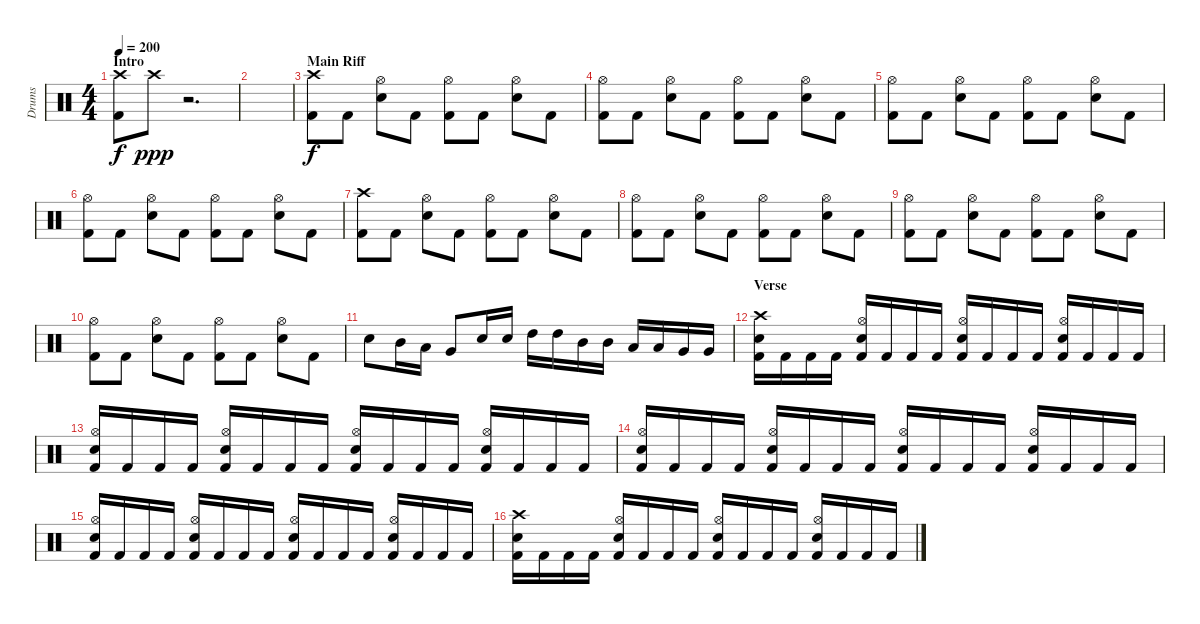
\track ("Drums" "Drums") {instrument percussion}
\staff {score}
\articulation defaults
\ts (4 4)
\section ("" "Intro")
\tempo 200
\clef neutral
\ks c
("Crash high (hit)" "Kick (hit) 2").8{dy f} "Crash high (hit)".8{dy ppp} r.2{d} |
|
\section ("" "Main Riff")
("Crash high (hit)" "Kick (hit) 2").8{dy f} "Kick (hit) 2".8 ("Hi-Hat (open)" "Electric Snare (hit)").8 "Kick (hit) 2".8 ("Hi-Hat (open)" "Kick (hit) 2").8 "Kick (hit) 2".8 ("Hi-Hat (open)" "Electric Snare (hit)").8 "Kick (hit) 2".8 |
("Hi-Hat (open)" "Kick (hit) 2").8 "Kick (hit) 2".8 ("Hi-Hat (open)" "Electric Snare (hit)").8 "Kick (hit) 2".8 ("Hi-Hat (open)" "Kick (hit) 2").8 "Kick (hit) 2".8 ("Hi-Hat (open)" "Electric Snare (hit)").8 "Kick (hit) 2".8 |
("Hi-Hat (open)" "Kick (hit) 2").8 "Kick (hit) 2".8 ("Hi-Hat (open)" "Electric Snare (hit)").8 "Kick (hit) 2".8 ("Hi-Hat (open)" "Kick (hit) 2").8 "Kick (hit) 2".8 ("Hi-Hat (open)" "Electric Snare (hit)").8 "Kick (hit) 2".8 |
("Hi-Hat (open)" "Kick (hit) 2").8 "Kick (hit) 2".8 ("Hi-Hat (open)" "Electric Snare (hit)").8 "Kick (hit) 2".8 ("Hi-Hat (open)" "Kick (hit) 2").8 "Kick (hit) 2".8 ("Hi-Hat (open)" "Electric Snare (hit)").8 "Kick (hit) 2".8 |
("Crash high (hit)" "Kick (hit) 2").8 "Kick (hit) 2".8 ("Hi-Hat (open)" "Electric Snare (hit)").8 "Kick (hit) 2".8 ("Hi-Hat (open)" "Kick (hit) 2").8 "Kick (hit) 2".8 ("Hi-Hat (open)" "Electric Snare (hit)").8 "Kick (hit) 2".8 |
("Hi-Hat (open)" "Kick (hit) 2").8 "Kick (hit) 2".8 ("Hi-Hat (open)" "Electric Snare (hit)").8 "Kick (hit) 2".8 ("Hi-Hat (open)" "Kick (hit) 2").8 "Kick (hit) 2".8 ("Hi-Hat (open)" "Electric Snare (hit)").8 "Kick (hit) 2".8 |
("Hi-Hat (open)" "Kick (hit) 2").8 "Kick (hit) 2".8 ("Hi-Hat (open)" "Electric Snare (hit)").8 "Kick (hit) 2".8 ("Hi-Hat (open)" "Kick (hit) 2").8 "Kick (hit) 2".8 ("Hi-Hat (open)" "Electric Snare (hit)").8 "Kick (hit) 2".8 |
("Hi-Hat (open)" "Kick (hit) 2").8 "Kick (hit) 2".8 ("Hi-Hat (open)" "Electric Snare (hit)").8 "Kick (hit) 2".8 ("Hi-Hat (open)" "Kick (hit) 2").8 "Kick (hit) 2".8 ("Hi-Hat (open)" "Electric Snare (hit)").8 "Kick (hit) 2".8 |
"Electric Snare (hit)".8 "Mid Tom (hit)".16 "Low Tom (hit)".16 "Very Low Tom (hit)".8 "Electric Snare (hit)".16 "Electric Snare (hit)".16 "High Tom (hit)".16 "High Tom (hit)".16 "Mid Tom (hit)".16 "Mid Tom (hit)".16 "Low Tom (hit)".16 "Low Tom (hit)".16 "Very Low Tom (hit)".16 "Very Low Tom (hit)".16 |
\section ("" "Verse")
("Crash high (hit)" "Electric Snare (hit)" "Kick (hit) 2").16 "Kick (hit) 2".16 "Kick (hit) 2".16 "Kick (hit) 2".16 ("Hi-Hat (open)" "Electric Snare (hit)" "Kick (hit) 2").16 "Kick (hit) 2".16 "Kick (hit) 2".16 "Kick (hit) 2".16 ("Hi-Hat (open)" "Electric Snare (hit)" "Kick (hit) 2").16 "Kick (hit) 2".16 "Kick (hit) 2".16 "Kick (hit) 2".16 ("Hi-Hat (open)" "Electric Snare (hit)" "Kick (hit) 2").16 "Kick (hit) 2".16 "Kick (hit) 2".16 "Kick (hit) 2".16 |
("Hi-Hat (open)" "Electric Snare (hit)" "Kick (hit) 2").16 "Kick (hit) 2".16 "Kick (hit) 2".16 "Kick (hit) 2".16 ("Hi-Hat (open)" "Electric Snare (hit)" "Kick (hit) 2").16 "Kick (hit) 2".16 "Kick (hit) 2".16 "Kick (hit) 2".16 ("Hi-Hat (open)" "Electric Snare (hit)" "Kick (hit) 2").16 "Kick (hit) 2".16 "Kick (hit) 2".16 "Kick (hit) 2".16 ("Hi-Hat (open)" "Electric Snare (hit)" "Kick (hit) 2").16 "Kick (hit) 2".16 "Kick (hit) 2".16 "Kick (hit) 2".16 |
("Hi-Hat (open)" "Electric Snare (hit)" "Kick (hit) 2").16 "Kick (hit) 2".16 "Kick (hit) 2".16 "Kick (hit) 2".16 ("Hi-Hat (open)" "Electric Snare (hit)" "Kick (hit) 2").16 "Kick (hit) 2".16 "Kick (hit) 2".16 "Kick (hit) 2".16 ("Hi-Hat (open)" "Electric Snare (hit)" "Kick (hit) 2").16 "Kick (hit) 2".16 "Kick (hit) 2".16 "Kick (hit) 2".16 ("Hi-Hat (open)" "Electric Snare (hit)" "Kick (hit) 2").16 "Kick (hit) 2".16 "Kick (hit) 2".16 "Kick (hit) 2".16 |
("Hi-Hat (open)" "Electric Snare (hit)" "Kick (hit) 2").16 "Kick (hit) 2".16 "Kick (hit) 2".16 "Kick (hit) 2".16 ("Hi-Hat (open)" "Electric Snare (hit)" "Kick (hit) 2").16 "Kick (hit) 2".16 "Kick (hit) 2".16 "Kick (hit) 2".16 ("Hi-Hat (open)" "Electric Snare (hit)" "Kick (hit) 2").16 "Kick (hit) 2".16 "Kick (hit) 2".16 "Kick (hit) 2".16 ("Hi-Hat (open)" "Electric Snare (hit)" "Kick (hit) 2").16 "Kick (hit) 2".16 "Kick (hit) 2".16 "Kick (hit) 2".16 |
("Crash high (hit)" "Electric Snare (hit)" "Kick (hit) 2").16 "Kick (hit) 2".16 "Kick (hit) 2".16 "Kick (hit) 2".16 ("Hi-Hat (open)" "Electric Snare (hit)" "Kick (hit) 2").16 "Kick (hit) 2".16 "Kick (hit) 2".16 "Kick (hit) 2".16 ("Hi-Hat (open)" "Electric Snare (hit)" "Kick (hit) 2").16 "Kick (hit) 2".16 "Kick (hit) 2".16 "Kick (hit) 2".16 ("Hi-Hat (open)" "Electric Snare (hit)" "Kick (hit) 2").16 "Kick (hit) 2".16 "Kick (hit) 2".16 "Kick (hit) 2".16
